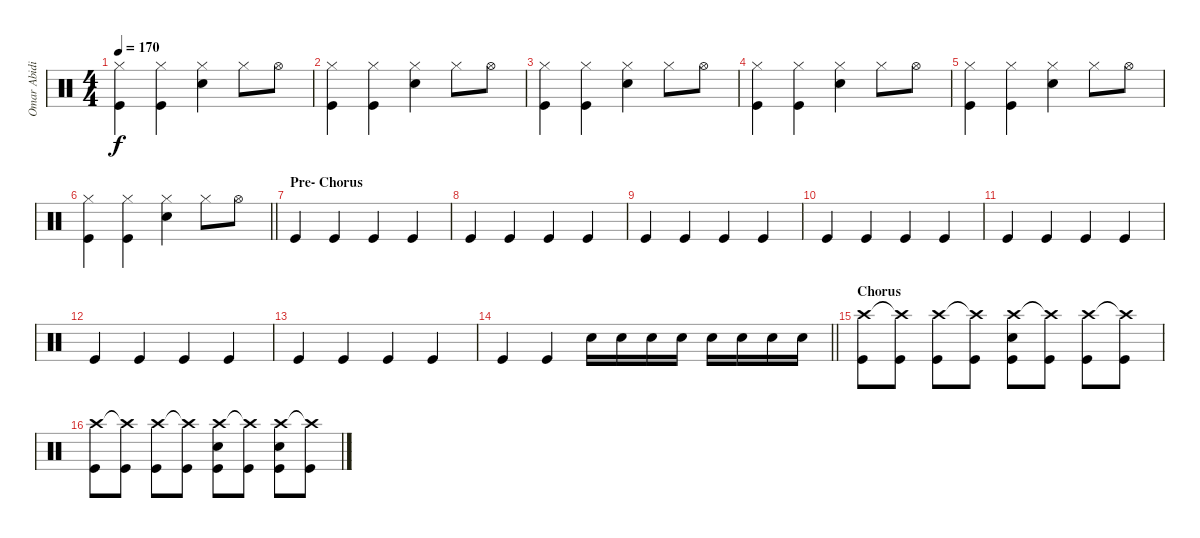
\track ("Omar Abidi" "Omar Abidi") {instrument percussion}
\staff {score}
\articulation defaults
\ts (4 4)
\tempo 170
\clef neutral
\ks c
("Hi-Hat (closed)" "Kick (hit)").4{dy f} ("Hi-Hat (closed)" "Kick (hit)").4 ("Hi-Hat (closed)" "Snare (hit) 2").4 "Hi-Hat (closed)".8 "Hi-Hat (open)".8 |
("Hi-Hat (closed)" "Kick (hit)").4 ("Hi-Hat (closed)" "Kick (hit)").4 ("Hi-Hat (closed)" "Snare (hit) 2").4 "Hi-Hat (closed)".8 "Hi-Hat (open)".8 |
("Hi-Hat (closed)" "Kick (hit)").4 ("Hi-Hat (closed)" "Kick (hit)").4 ("Hi-Hat (closed)" "Snare (hit) 2").4 "Hi-Hat (closed)".8 "Hi-Hat (open)".8 |
("Hi-Hat (closed)" "Kick (hit)").4 ("Hi-Hat (closed)" "Kick (hit)").4 ("Hi-Hat (closed)" "Snare (hit) 2").4 "Hi-Hat (closed)".8 "Hi-Hat (open)".8 |
("Hi-Hat (closed)" "Kick (hit)").4 ("Hi-Hat (closed)" "Kick (hit)").4 ("Hi-Hat (closed)" "Snare (hit) 2").4 "Hi-Hat (closed)".8 "Hi-Hat (open)".8 |
\barLineRight lightlight
("Hi-Hat (closed)" "Kick (hit)").4 ("Hi-Hat (closed)" "Kick (hit)").4 ("Hi-Hat (closed)" "Snare (hit) 2").4 "Hi-Hat (closed)".8 "Hi-Hat (open)".8 |
\section ("" "Pre- Chorus")
"Kick (hit)".4 "Kick (hit)".4 "Kick (hit)".4 "Kick (hit)".4 |
"Kick (hit)".4 "Kick (hit)".4 "Kick (hit)".4 "Kick (hit)".4 |
"Kick (hit)".4 "Kick (hit)".4 "Kick (hit)".4 "Kick (hit)".4 |
"Kick (hit)".4 "Kick (hit)".4 "Kick (hit)".4 "Kick (hit)".4 |
"Kick (hit)".4 "Kick (hit)".4 "Kick (hit)".4 "Kick (hit)".4 |
"Kick (hit)".4 "Kick (hit)".4 "Kick (hit)".4 "Kick (hit)".4 |
"Kick (hit)".4 "Kick (hit)".4 "Kick (hit)".4 "Kick (hit)".4 |
\barLineRight lightlight "Kick (hit)".4 "Kick (hit)".4 "Snare (hit) 2".16 "Snare (hit) 2".16 "Snare (hit) 2".16 "Snare (hit) 2".16 "Snare (hit) 2".16 "Snare (hit) 2".16 "Snare (hit) 2".16 "Snare (hit) 2".16
|
\section ("" "Chorus")
("Crash high (hit)" "Kick (hit)").8 ("Crash high (hit)"{t} "Kick (hit)").8 ("Crash high (hit)" "Kick (hit)").8 ("Crash high (hit)"{t} "Kick (hit)").8 ("Crash high (hit)" "Snare (hit) 2" "Kick (hit)").8 ("Crash high (hit)"{t} "Kick (hit)").8 ("Crash high (hit)" "Kick (hit)").8 ("Crash high (hit)"{t} "Kick (hit)").8 |
("Crash high (hit)" "Kick (hit)").8 ("Crash high (hit)"{t} "Kick (hit)").8 ("Crash high (hit)" "Kick (hit)").8 ("Crash high (hit)"{t} "Kick (hit)").8 ("Crash high (hit)" "Snare (hit) 2" "Kick (hit)").8 ("Crash high (hit)"{t} "Kick (hit)").8 ("Crash high (hit)" "Snare (hit) 2" "Kick (hit)").8 ("Crash high (hit)"{t} "Kick (hit)").8
